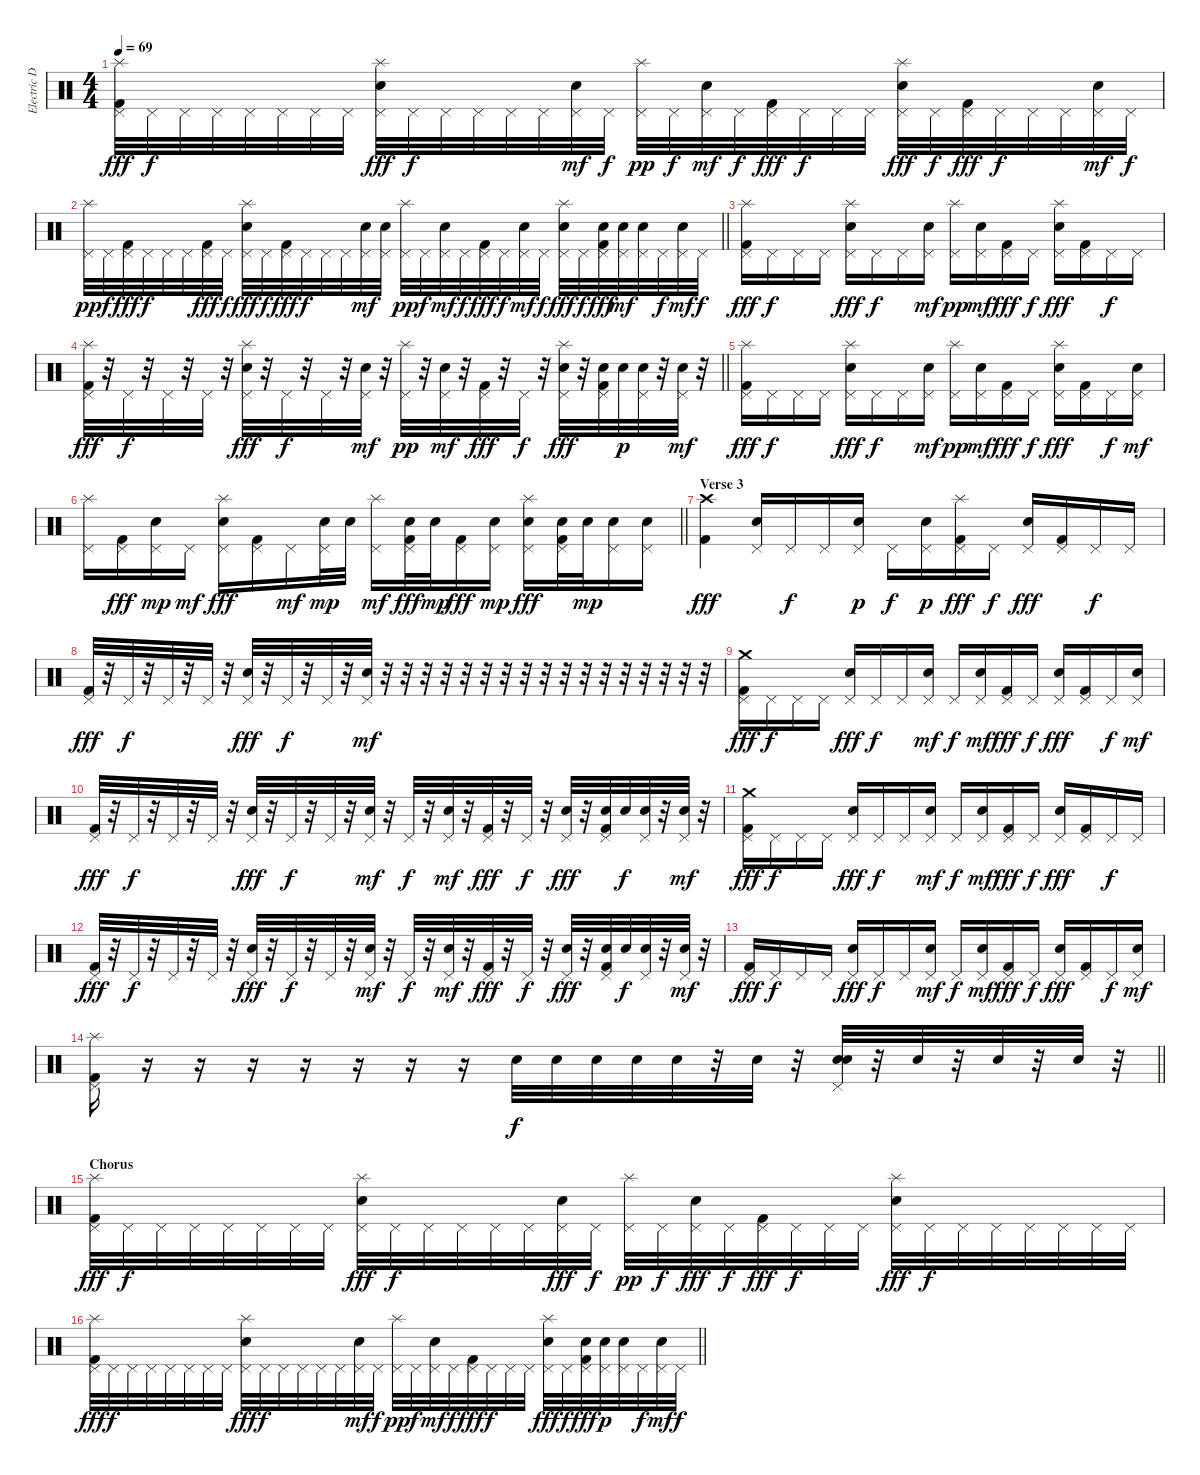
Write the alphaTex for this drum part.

\track ("Electric Drums" "Electric D") {instrument percussion}
\staff {score}
\articulation defaults
\ts (4 4)
\tempo 69
\clef neutral
\ks aminor
("Splash (hit)" "Pedal Hi-Hat (hit)" "Kick (hit) 2").32{dy fff} "Pedal Hi-Hat (hit)".32{dy f} "Pedal Hi-Hat (hit)".32 "Pedal Hi-Hat (hit)".32 "Pedal Hi-Hat (hit)".32 "Pedal Hi-Hat (hit)".32 "Pedal Hi-Hat (hit)".32 "Pedal Hi-Hat (hit)".32 ("Splash (hit)" "Pedal Hi-Hat (hit)" "Hand Clap (hit)").32{dy fff} "Pedal Hi-Hat (hit)".32{dy f} "Pedal Hi-Hat (hit)".32 "Pedal Hi-Hat (hit)".32 "Pedal Hi-Hat (hit)".32 "Pedal Hi-Hat (hit)".32 ("Pedal Hi-Hat (hit)" "Snare (hit) 2").32{dy mf} "Pedal Hi-Hat (hit)".32{dy f} ("Splash (hit)" "Pedal Hi-Hat (hit)").32{dy pp} "Pedal Hi-Hat (hit)".32{dy f} ("Pedal Hi-Hat (hit)" "Snare (hit) 2").32{dy mf} "Pedal Hi-Hat (hit)".32{dy f} ("Pedal Hi-Hat (hit)" "Kick (hit) 2").32{dy fff} "Pedal Hi-Hat (hit)".32{dy f} "Pedal Hi-Hat (hit)".32 "Pedal Hi-Hat (hit)".32 ("Splash (hit)" "Pedal Hi-Hat (hit)" "Hand Clap (hit)").32{dy fff} "Pedal Hi-Hat (hit)".32{dy f} ("Pedal Hi-Hat (hit)" "Kick (hit) 2").32{dy fff} "Pedal Hi-Hat (hit)".32{dy f} "Pedal Hi-Hat (hit)".32 "Pedal Hi-Hat (hit)".32 ("Pedal Hi-Hat (hit)" "Snare (hit) 2").32{dy mf} "Pedal Hi-Hat (hit)".32{dy f} |
\barLineRight lightlight
("Splash (hit)" "Pedal Hi-Hat (hit)").32{dy pp} "Pedal Hi-Hat (hit)".32{dy f} ("Pedal Hi-Hat (hit)" "Kick (hit) 2").32{dy fff} "Pedal Hi-Hat (hit)".32{dy f} "Pedal Hi-Hat (hit)".32 "Pedal Hi-Hat (hit)".32 ("Pedal Hi-Hat (hit)" "Kick (hit) 2").32{dy fff} "Pedal Hi-Hat (hit)".32{dy f} ("Splash (hit)" "Pedal Hi-Hat (hit)" "Hand Clap (hit)").32{dy fff} "Pedal Hi-Hat (hit)".32{dy f} ("Pedal Hi-Hat (hit)" "Kick (hit) 2").32{dy fff} "Pedal Hi-Hat (hit)".32{dy f} "Pedal Hi-Hat (hit)".32 "Pedal Hi-Hat (hit)".32 ("Pedal Hi-Hat (hit)" "Snare (hit) 2").32{dy mf} ("Pedal Hi-Hat (hit)" "Snare (hit) 2").32 ("Splash (hit)" "Pedal Hi-Hat (hit)").32{dy pp} "Pedal Hi-Hat (hit)".32{dy f} ("Pedal Hi-Hat (hit)" "Snare (hit) 2").32{dy mf} "Pedal Hi-Hat (hit)".32{dy f} ("Pedal Hi-Hat (hit)" "Kick (hit) 2").32{dy fff} "Pedal Hi-Hat (hit)".32{dy f} ("Pedal Hi-Hat (hit)" "Snare (hit) 2").32{dy mf} "Pedal Hi-Hat (hit)".32{dy f} ("Splash (hit)" "Pedal Hi-Hat (hit)" "Hand Clap (hit)").32{dy fff} "Pedal Hi-Hat (hit)".32{dy f} ("Pedal Hi-Hat (hit)" "Snare (hit) 2" "Kick (hit) 2").32{dy fff} ("Pedal Hi-Hat (hit)" "Snare (hit) 2").32{dy mf} ("Pedal Hi-Hat (hit)" "Snare (hit) 2").32 "Pedal Hi-Hat (hit)".32{dy f} ("Pedal Hi-Hat (hit)" "Snare (hit) 2").32{dy mf} "Pedal Hi-Hat (hit)".32{dy f} |
("Splash (hit)" "Pedal Hi-Hat (hit)" "Kick (hit) 2").16{dy fff} "Pedal Hi-Hat (hit)".16{dy f} "Pedal Hi-Hat (hit)".16 "Pedal Hi-Hat (hit)".16 ("Splash (hit)" "Pedal Hi-Hat (hit)" "Hand Clap (hit)").16{dy fff} "Pedal Hi-Hat (hit)".16{dy f} "Pedal Hi-Hat (hit)".16 ("Pedal Hi-Hat (hit)" "Snare (hit) 2").16{dy mf} ("Splash (hit)" "Pedal Hi-Hat (hit)").16{dy pp} ("Pedal Hi-Hat (hit)" "Snare (hit) 2").16{dy mf} ("Pedal Hi-Hat (hit)" "Kick (hit) 2").16{dy fff} "Pedal Hi-Hat (hit)".16{dy f} ("Splash (hit)" "Pedal Hi-Hat (hit)" "Hand Clap (hit)").16{dy fff} ("Pedal Hi-Hat (hit)" "Kick (hit) 2").16 "Pedal Hi-Hat (hit)".16{dy f} "Pedal Hi-Hat (hit)".16 |
\barLineRight lightlight
("Splash (hit)" "Pedal Hi-Hat (hit)" "Kick (hit) 2").32{dy fff} r.32 "Pedal Hi-Hat (hit)".32{dy f} r.32 "Pedal Hi-Hat (hit)".32 r.32 "Pedal Hi-Hat (hit)".32 r.32 ("Splash (hit)" "Pedal Hi-Hat (hit)" "Hand Clap (hit)").32{dy fff} r.32 "Pedal Hi-Hat (hit)".32{dy f} r.32 "Pedal Hi-Hat (hit)".32 r.32 ("Pedal Hi-Hat (hit)" "Snare (hit) 2").32{dy mf} r.32 ("Splash (hit)" "Pedal Hi-Hat (hit)").32{dy pp} r.32 ("Pedal Hi-Hat (hit)" "Snare (hit) 2").32{dy mf} r.32 ("Pedal Hi-Hat (hit)" "Kick (hit) 2").32{dy fff} r.32 "Pedal Hi-Hat (hit)".32{dy f} r.32 ("Splash (hit)" "Pedal Hi-Hat (hit)" "Hand Clap (hit)").32{dy fff} r.32 ("Pedal Hi-Hat (hit)" "Snare (hit) 2" "Kick (hit) 2").32 "Snare (hit) 2".32{dy p} ("Pedal Hi-Hat (hit)" "Snare (hit) 2").32 r.32 ("Pedal Hi-Hat (hit)" "Snare (hit) 2").32{dy mf} r.32 |
("Splash (hit)" "Pedal Hi-Hat (hit)" "Kick (hit) 2").16{dy fff} "Pedal Hi-Hat (hit)".16{dy f} "Pedal Hi-Hat (hit)".16 "Pedal Hi-Hat (hit)".16 ("Splash (hit)" "Pedal Hi-Hat (hit)" "Hand Clap (hit)").16{dy fff} "Pedal Hi-Hat (hit)".16{dy f} "Pedal Hi-Hat (hit)".16 ("Pedal Hi-Hat (hit)" "Snare (hit) 2").16{dy mf} ("Splash (hit)" "Pedal Hi-Hat (hit)").16{dy pp} ("Pedal Hi-Hat (hit)" "Snare (hit) 2").16{dy mf} ("Pedal Hi-Hat (hit)" "Kick (hit) 2").16{dy fff} "Pedal Hi-Hat (hit)".16{dy f} ("Splash (hit)" "Pedal Hi-Hat (hit)" "Hand Clap (hit)").16{dy fff} ("Pedal Hi-Hat (hit)" "Kick (hit) 2").16 "Pedal Hi-Hat (hit)".16{dy f} ("Pedal Hi-Hat (hit)" "Snare (hit) 2").16{dy mf} |
\barLineRight lightlight
("Splash (hit)" "Pedal Hi-Hat (hit)").16 ("Pedal Hi-Hat (hit)" "Kick (hit) 2").16{dy fff} ("Pedal Hi-Hat (hit)" "Snare (hit) 2").16{dy mp} "Pedal Hi-Hat (hit)".16{dy mf} ("Splash (hit)" "Pedal Hi-Hat (hit)" "Hand Clap (hit)").16{dy fff} ("Pedal Hi-Hat (hit)" "Kick (hit) 2").16 "Pedal Hi-Hat (hit)".16{dy mf} ("Pedal Hi-Hat (hit)" "Snare (hit) 2").32{dy mp} "Snare (hit) 2".32 ("Splash (hit)" "Pedal Hi-Hat (hit)").16{dy mf} ("Pedal Hi-Hat (hit)" "Snare (hit) 2" "Kick (hit) 2").32{dy fff} "Snare (hit) 2".32{dy mp} ("Pedal Hi-Hat (hit)" "Kick (hit) 2").16{dy fff} ("Pedal Hi-Hat (hit)" "Snare (hit) 2").16{dy mp} ("Splash (hit)" "Pedal Hi-Hat (hit)" "Hand Clap (hit)").16{dy fff} ("Pedal Hi-Hat (hit)" "Snare (hit) 2" "Kick (hit) 2").32 "Snare (hit) 2".32{dy mp} ("Pedal Hi-Hat (hit)" "Snare (hit) 2").16 ("Pedal Hi-Hat (hit)" "Snare (hit) 2").16 |
\section ("" "Verse 3")
("Crash high (hit)" "Kick (hit) 2").4{dy fff} ("Pedal Hi-Hat (hit)" "Hand Clap (hit)").16 "Pedal Hi-Hat (hit)".16{dy f} "Pedal Hi-Hat (hit)".16 ("Pedal Hi-Hat (hit)" "Snare (hit) 2").16{dy p} "Pedal Hi-Hat (hit)".16{dy f} ("Pedal Hi-Hat (hit)" "Snare (hit) 2").16{dy p} ("Splash (hit)" "Pedal Hi-Hat (hit)" "Kick (hit) 2").16{dy fff} "Pedal Hi-Hat (hit)".16{dy f} ("Pedal Hi-Hat (hit)" "Hand Clap (hit)").16{dy fff} ("Pedal Hi-Hat (hit)" "Kick (hit) 2").16 "Pedal Hi-Hat (hit)".16{dy f} "Pedal Hi-Hat (hit)".16 |
("Pedal Hi-Hat (hit)" "Kick (hit) 2").32{dy fff} r.32 "Pedal Hi-Hat (hit)".32{dy f} r.32 "Pedal Hi-Hat (hit)".32 r.32 "Pedal Hi-Hat (hit)".32 r.32 ("Pedal Hi-Hat (hit)" "Hand Clap (hit)").32{dy fff} r.32 "Pedal Hi-Hat (hit)".32{dy f} r.32 "Pedal Hi-Hat (hit)".32 r.32 ("Pedal Hi-Hat (hit)" "Snare (hit) 2").32{dy mf} r.32 r.32 r.32 r.32 r.32 r.32 r.32 r.32 r.32 r.32 r.32 r.32 r.32 r.32 r.32 r.32 r.32 |
("Crash medium (hit)" "Pedal Hi-Hat (hit)" "Kick (hit) 2").16{dy fff} "Pedal Hi-Hat (hit)".16{dy f} "Pedal Hi-Hat (hit)".16 "Pedal Hi-Hat (hit)".16 ("Pedal Hi-Hat (hit)" "Hand Clap (hit)").16{dy fff} "Pedal Hi-Hat (hit)".16{dy f} "Pedal Hi-Hat (hit)".16 ("Pedal Hi-Hat (hit)" "Snare (hit) 2").16{dy mf} "Pedal Hi-Hat (hit)".16{dy f} ("Pedal Hi-Hat (hit)" "Snare (hit) 2").16{dy mf} ("Pedal Hi-Hat (hit)" "Kick (hit) 2").16{dy fff} "Pedal Hi-Hat (hit)".16{dy f} ("Pedal Hi-Hat (hit)" "Hand Clap (hit)").16{dy fff} ("Pedal Hi-Hat (hit)" "Kick (hit) 2").16 "Pedal Hi-Hat (hit)".16{dy f} ("Pedal Hi-Hat (hit)" "Snare (hit) 2").16{dy mf} |
("Pedal Hi-Hat (hit)" "Kick (hit) 2").32{dy fff} r.32 "Pedal Hi-Hat (hit)".32{dy f} r.32 "Pedal Hi-Hat (hit)".32 r.32 "Pedal Hi-Hat (hit)".32 r.32 ("Pedal Hi-Hat (hit)" "Hand Clap (hit)").32{dy fff} r.32 "Pedal Hi-Hat (hit)".32{dy f} r.32 "Pedal Hi-Hat (hit)".32 r.32 ("Pedal Hi-Hat (hit)" "Snare (hit) 2").32{dy mf} r.32 "Pedal Hi-Hat (hit)".32{dy f} r.32 ("Pedal Hi-Hat (hit)" "Snare (hit) 2").32{dy mf} r.32 ("Pedal Hi-Hat (hit)" "Kick (hit) 2").32{dy fff} r.32 "Pedal Hi-Hat (hit)".32{dy f} r.32 ("Pedal Hi-Hat (hit)" "Hand Clap (hit)").32{dy fff} r.32 ("Pedal Hi-Hat (hit)" "Snare (hit) 2" "Kick (hit) 2").32 "Snare (hit) 2".32{dy f} ("Pedal Hi-Hat (hit)" "Snare (hit) 2").32 r.32 ("Pedal Hi-Hat (hit)" "Snare (hit) 2").32{dy mf} r.32 |
("Crash medium (hit)" "Pedal Hi-Hat (hit)" "Kick (hit) 2").16{dy fff} "Pedal Hi-Hat (hit)".16{dy f} "Pedal Hi-Hat (hit)".16 "Pedal Hi-Hat (hit)".16 ("Pedal Hi-Hat (hit)" "Hand Clap (hit)").16{dy fff} "Pedal Hi-Hat (hit)".16{dy f} "Pedal Hi-Hat (hit)".16 ("Pedal Hi-Hat (hit)" "Snare (hit) 2").16{dy mf} "Pedal Hi-Hat (hit)".16{dy f} ("Pedal Hi-Hat (hit)" "Snare (hit) 2").16{dy mf} ("Pedal Hi-Hat (hit)" "Kick (hit) 2").16{dy fff} "Pedal Hi-Hat (hit)".16{dy f} ("Pedal Hi-Hat (hit)" "Hand Clap (hit)").16{dy fff} ("Pedal Hi-Hat (hit)" "Kick (hit) 2").16 "Pedal Hi-Hat (hit)".16{dy f} "Pedal Hi-Hat (hit)".16 |
("Pedal Hi-Hat (hit)" "Kick (hit) 2").32{dy fff} r.32 "Pedal Hi-Hat (hit)".32{dy f} r.32 "Pedal Hi-Hat (hit)".32 r.32 "Pedal Hi-Hat (hit)".32 r.32 ("Pedal Hi-Hat (hit)" "Hand Clap (hit)").32{dy fff} r.32 "Pedal Hi-Hat (hit)".32{dy f} r.32 "Pedal Hi-Hat (hit)".32 r.32 ("Pedal Hi-Hat (hit)" "Snare (hit) 2").32{dy mf} r.32 "Pedal Hi-Hat (hit)".32{dy f} r.32 ("Pedal Hi-Hat (hit)" "Snare (hit) 2").32{dy mf} r.32 ("Pedal Hi-Hat (hit)" "Kick (hit) 2").32{dy fff} r.32 "Pedal Hi-Hat (hit)".32{dy f} r.32 ("Pedal Hi-Hat (hit)" "Hand Clap (hit)").32{dy fff} r.32 ("Pedal Hi-Hat (hit)" "Snare (hit) 2" "Kick (hit) 2").32 "Snare (hit) 2".32{dy f} ("Pedal Hi-Hat (hit)" "Snare (hit) 2").32 r.32 ("Pedal Hi-Hat (hit)" "Snare (hit) 2").32{dy mf} r.32 |
("Pedal Hi-Hat (hit)" "Kick (hit) 2").16{dy fff} "Pedal Hi-Hat (hit)".16{dy f} "Pedal Hi-Hat (hit)".16 "Pedal Hi-Hat (hit)".16 ("Pedal Hi-Hat (hit)" "Hand Clap (hit)").16{dy fff} "Pedal Hi-Hat (hit)".16{dy f} "Pedal Hi-Hat (hit)".16 ("Pedal Hi-Hat (hit)" "Snare (hit) 2").16{dy mf} "Pedal Hi-Hat (hit)".16{dy f} ("Pedal Hi-Hat (hit)" "Snare (hit) 2").16{dy mf} ("Pedal Hi-Hat (hit)" "Kick (hit) 2").16{dy fff} "Pedal Hi-Hat (hit)".16{dy f} ("Pedal Hi-Hat (hit)" "Hand Clap (hit)").16{dy fff} ("Pedal Hi-Hat (hit)" "Kick (hit) 2").16 "Pedal Hi-Hat (hit)".16{dy f} ("Pedal Hi-Hat (hit)" "Snare (hit) 2").16{dy mf} |
\barLineRight lightlight
("Splash (hit)" "Pedal Hi-Hat (hit)" "Kick (hit) 2").16 r.16 r.16 r.16 r.16 r.16 r.16 r.16 "Snare (hit) 2".32{dy f} "Snare (hit) 2".32 "Snare (hit) 2".32 "Snare (hit) 2".32 "Snare (hit) 2".32 r.32 "Snare (hit) 2".32 r.32 ("Pedal Hi-Hat (hit)" "Hand Clap (hit)" "Snare (hit) 2").32 r.32 "Snare (hit) 2".32 r.32 "Snare (hit) 2".32 r.32 "Snare (hit) 2".32 r.32 |
\section ("" "Chorus")
("Splash (hit)" "Pedal Hi-Hat (hit)" "Kick (hit) 2").32{dy fff} "Pedal Hi-Hat (hit)".32{dy f} "Pedal Hi-Hat (hit)".32 "Pedal Hi-Hat (hit)".32 "Pedal Hi-Hat (hit)".32 "Pedal Hi-Hat (hit)".32 "Pedal Hi-Hat (hit)".32 "Pedal Hi-Hat (hit)".32 ("Splash (hit)" "Pedal Hi-Hat (hit)" "Hand Clap (hit)").32{dy fff} "Pedal Hi-Hat (hit)".32{dy f} "Pedal Hi-Hat (hit)".32 "Pedal Hi-Hat (hit)".32 "Pedal Hi-Hat (hit)".32 "Pedal Hi-Hat (hit)".32 ("Pedal Hi-Hat (hit)" "Snare (hit) 2").32{dy fff} "Pedal Hi-Hat (hit)".32{dy f} ("Splash (hit)" "Pedal Hi-Hat (hit)").32{dy pp} "Pedal Hi-Hat (hit)".32{dy f} ("Pedal Hi-Hat (hit)" "Snare (hit) 2").32{dy fff} "Pedal Hi-Hat (hit)".32{dy f} ("Pedal Hi-Hat (hit)" "Kick (hit) 2").32{dy fff} "Pedal Hi-Hat (hit)".32{dy f} "Pedal Hi-Hat (hit)".32 "Pedal Hi-Hat (hit)".32 ("Splash (hit)" "Pedal Hi-Hat (hit)" "Hand Clap (hit)").32{dy fff} "Pedal Hi-Hat (hit)".32{dy f} "Pedal Hi-Hat (hit)".32 "Pedal Hi-Hat (hit)".32 "Pedal Hi-Hat (hit)".32 "Pedal Hi-Hat (hit)".32 "Pedal Hi-Hat (hit)".32 "Pedal Hi-Hat (hit)".32 |
\barLineRight lightlight
("Splash (hit)" "Pedal Hi-Hat (hit)" "Kick (hit) 2").32{dy fff} "Pedal Hi-Hat (hit)".32{dy f} "Pedal Hi-Hat (hit)".32 "Pedal Hi-Hat (hit)".32 "Pedal Hi-Hat (hit)".32 "Pedal Hi-Hat (hit)".32 "Pedal Hi-Hat (hit)".32 "Pedal Hi-Hat (hit)".32 ("Splash (hit)" "Pedal Hi-Hat (hit)" "Hand Clap (hit)").32{dy fff} "Pedal Hi-Hat (hit)".32{dy f} "Pedal Hi-Hat (hit)".32 "Pedal Hi-Hat (hit)".32 "Pedal Hi-Hat (hit)".32 "Pedal Hi-Hat (hit)".32 ("Pedal Hi-Hat (hit)" "Snare (hit) 2").32{dy mf} "Pedal Hi-Hat (hit)".32{dy f} ("Splash (hit)" "Pedal Hi-Hat (hit)").32{dy pp} "Pedal Hi-Hat (hit)".32{dy f} ("Pedal Hi-Hat (hit)" "Snare (hit) 2").32{dy mf} "Pedal Hi-Hat (hit)".32{dy f} ("Pedal Hi-Hat (hit)" "Kick (hit) 2").32{dy fff} "Pedal Hi-Hat (hit)".32{dy f} "Pedal Hi-Hat (hit)".32 "Pedal Hi-Hat (hit)".32 ("Splash (hit)" "Pedal Hi-Hat (hit)" "Hand Clap (hit)").32{dy fff} "Pedal Hi-Hat (hit)".32{dy f} ("Pedal Hi-Hat (hit)" "Snare (hit) 2" "Kick (hit) 2").32{dy fff} ("Pedal Hi-Hat (hit)" "Snare (hit) 2").32{dy p} ("Pedal Hi-Hat (hit)" "Snare (hit) 2").32 "Pedal Hi-Hat (hit)".32{dy f} ("Pedal Hi-Hat (hit)" "Snare (hit) 2").32{dy mf} "Pedal Hi-Hat (hit)".32{dy f}
